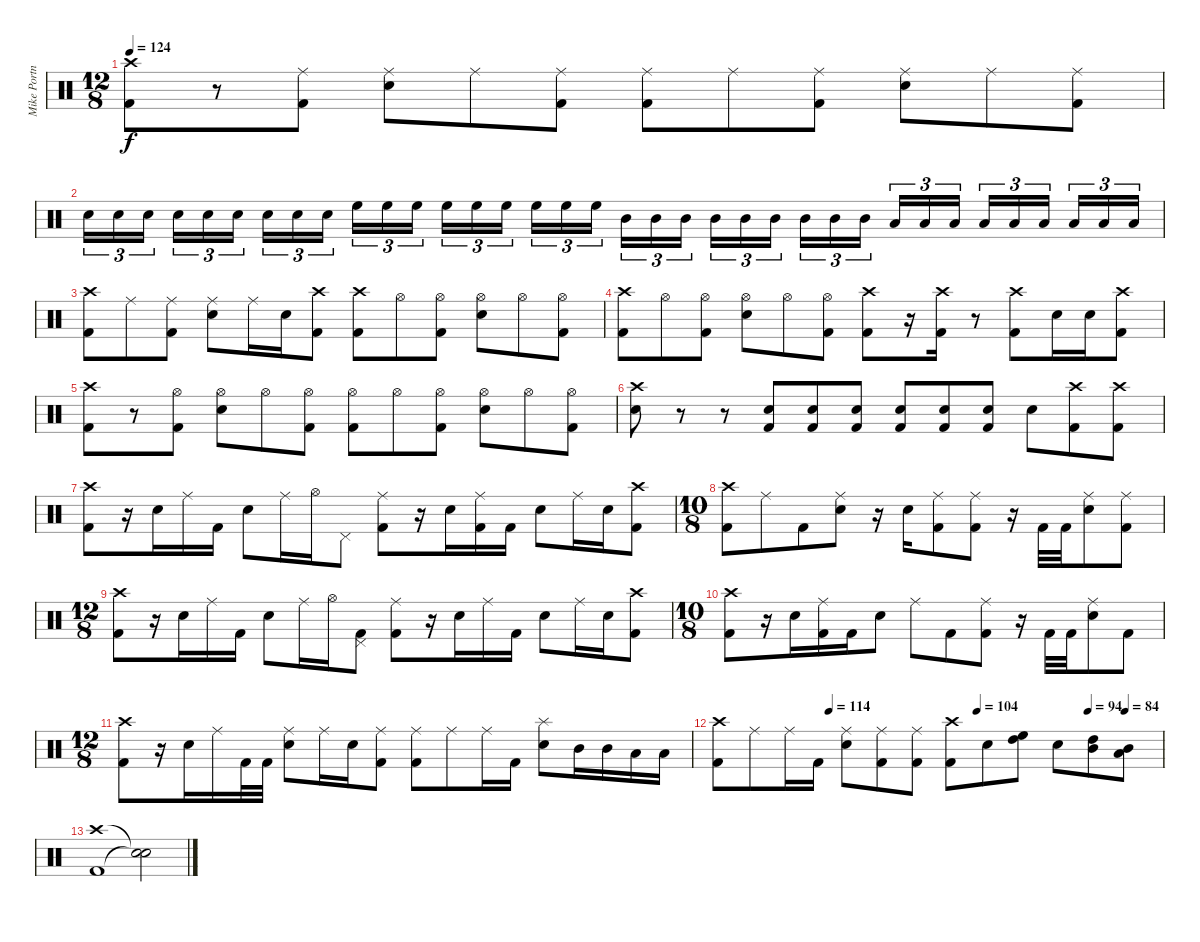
\track ("Mike Portnoy - Drums" "Mike Portn") {instrument percussion}
\staff {score}
\articulation defaults
\ts (12 8)
\tempo 124
\clef neutral
\ks c
("Crash high (hit)" "Kick (hit) 2").8{dy f} r.8 ("Ride (middle)" "Kick (hit) 2").8 ("Ride (middle)" "Electric Snare (hit)").8 "Ride (middle)".8 ("Ride (middle)" "Kick (hit) 2").8 ("Ride (middle)" "Kick (hit) 2").8 "Ride (middle)".8 ("Ride (middle)" "Kick (hit) 2").8 ("Ride (middle)" "Electric Snare (hit)").8 "Ride (middle)".8 ("Ride (middle)" "Kick (hit) 2").8 |
"Electric Snare (hit)".16{tu (3 2)} "Electric Snare (hit)".16{tu (3 2)} "Electric Snare (hit)".16{tu (3 2)} "Electric Snare (hit)".16{tu (3 2)} "Electric Snare (hit)".16{tu (3 2)} "Electric Snare (hit)".16{tu (3 2)} "Electric Snare (hit)".16{tu (3 2)} "Electric Snare (hit)".16{tu (3 2)} "Electric Snare (hit)".16{tu (3 2)} "High Floor Tom (hit)".16{tu (3 2)} "High Floor Tom (hit)".16{tu (3 2)} "High Floor Tom (hit)".16{tu (3 2)} "High Floor Tom (hit)".16{tu (3 2)} "High Floor Tom (hit)".16{tu (3 2)} "High Floor Tom (hit)".16{tu (3 2)} "High Floor Tom (hit)".16{tu (3 2)} "High Floor Tom (hit)".16{tu (3 2)} "High Floor Tom (hit)".16{tu (3 2)} "Mid Tom (hit)".16{tu (3 2)} "Mid Tom (hit)".16{tu (3 2)} "Mid Tom (hit)".16{tu (3 2)} "Mid Tom (hit)".16{tu (3 2)} "Mid Tom (hit)".16{tu (3 2)} "Mid Tom (hit)".16{tu (3 2)} "Mid Tom (hit)".16{tu (3 2)} "Mid Tom (hit)".16{tu (3 2)} "Mid Tom (hit)".16{tu (3 2)} "Low Floor Tom (hit)".16{tu (3 2)} "Low Floor Tom (hit)".16{tu (3 2)} "Low Floor Tom (hit)".16{tu (3 2)} "Low Floor Tom (hit)".16{tu (3 2)} "Low Floor Tom (hit)".16{tu (3 2)} "Low Floor Tom (hit)".16{tu (3 2)} "Low Floor Tom (hit)".16{tu (3 2)} "Low Floor Tom (hit)".16{tu (3 2)} "Low Floor Tom (hit)".16{tu (3 2)} |
("Crash high (hit)" "Kick (hit) 2").8 "Ride (middle)".8 ("Ride (middle)" "Kick (hit) 2").8 ("Ride (middle)" "Electric Snare (hit)").8 "Ride (middle)".16 "Electric Snare (hit)".16 ("Crash high (hit)" "Kick (hit) 2").8 ("Crash high (hit)" "Kick (hit) 2").8 "Hi-Hat (open)".8 ("Hi-Hat (open)" "Kick (hit) 2").8 ("Hi-Hat (open)" "Electric Snare (hit)").8 "Hi-Hat (open)".8 ("Hi-Hat (open)" "Kick (hit) 2").8 |
("Crash high (hit)" "Kick (hit) 2").8 "Hi-Hat (open)".8 ("Hi-Hat (open)" "Kick (hit) 2").8 ("Hi-Hat (open)" "Electric Snare (hit)").8 "Hi-Hat (open)".8 ("Hi-Hat (open)" "Kick (hit) 2").8 ("Crash high (hit)" "Kick (hit) 2").8 r.16 ("Crash high (hit)" "Kick (hit) 2").16 r.8 ("Crash high (hit)" "Kick (hit) 2").8 "Electric Snare (hit)".16 "Electric Snare (hit)".16 ("Crash high (hit)" "Kick (hit) 2").8 |
("Crash high (hit)" "Kick (hit) 2").8 r.8 ("Hi-Hat (open)" "Kick (hit) 2").8 ("Hi-Hat (open)" "Electric Snare (hit)").8 "Hi-Hat (open)".8 ("Hi-Hat (open)" "Kick (hit) 2").8 ("Hi-Hat (open)" "Kick (hit) 2").8 "Hi-Hat (open)".8 ("Hi-Hat (open)" "Kick (hit) 2").8 ("Hi-Hat (open)" "Electric Snare (hit)").8 "Hi-Hat (open)".8 ("Hi-Hat (open)" "Kick (hit) 2").8 |
("Crash high (hit)" "Electric Snare (hit)").8 r.8 r.8 ("Electric Snare (hit)" "Kick (hit) 2").8 ("Electric Snare (hit)" "Kick (hit) 2").8 ("Electric Snare (hit)" "Kick (hit) 2").8 ("Electric Snare (hit)" "Kick (hit) 2").8 ("Electric Snare (hit)" "Kick (hit) 2").8 ("Electric Snare (hit)" "Kick (hit) 2").8 "Electric Snare (hit)".8 ("Crash high (hit)" "Kick (hit) 2").8 ("Crash high (hit)" "Kick (hit) 2").8 |
("Crash high (hit)" "Kick (hit) 2").8 r.16 "Electric Snare (hit)".16 "Ride (middle)".16 "Kick (hit) 2".16 "Electric Snare (hit)".8 "Ride (middle)".16 "Hi-Hat (open)".16 "Pedal Hi-Hat (hit)".8 ("Ride (middle)" "Kick (hit) 2").8 r.16 "Electric Snare (hit)".16 ("Ride (middle)" "Kick (hit) 2").16 "Kick (hit) 2".16 "Electric Snare (hit)".8 "Ride (middle)".16 "Electric Snare (hit)".16 ("Crash high (hit)" "Kick (hit) 2").8 |
\ts (10 8)
("Crash high (hit)" "Kick (hit) 2").8 "Ride (middle)".8 "Kick (hit) 2".8 ("Ride (middle)" "Electric Snare (hit)").8 r.16 "Electric Snare (hit)".16 ("Ride (middle)" "Kick (hit) 2").8 ("Ride (middle)" "Kick (hit) 2").8 r.16 "Kick (hit) 2".32 "Kick (hit) 2".32 ("Ride (middle)" "Electric Snare (hit)").8 ("Ride (middle)" "Kick (hit) 2").8 |
\ts (12 8)
("Crash high (hit)" "Kick (hit) 2").8 r.16 "Electric Snare (hit)".16 "Ride (middle)".16 "Kick (hit) 2".16 "Electric Snare (hit)".8 "Ride (middle)".16 "Hi-Hat (open)".16 ("Pedal Hi-Hat (hit)" "Kick (hit) 2").8 ("Ride (middle)" "Kick (hit) 2").8 r.16 "Electric Snare (hit)".16 "Ride (middle)".16 "Kick (hit) 2".16 "Electric Snare (hit)".8 "Ride (middle)".16 "Electric Snare (hit)".16 ("Crash high (hit)" "Kick (hit) 2").8 |
\ts (10 8)
("Crash high (hit)" "Kick (hit) 2").8 r.16 "Electric Snare (hit)".16 ("Ride (middle)" "Kick (hit) 2").16 "Kick (hit) 2".16 "Electric Snare (hit)".8 "Ride (middle)".8 "Kick (hit) 2".8 ("Ride (middle)" "Kick (hit) 2").8 r.16 "Kick (hit) 2".32 "Kick (hit) 2".32 ("Ride (middle)" "Electric Snare (hit)").8 "Kick (hit) 2".8 |
\ts (12 8)
("Crash high (hit)" "Kick (hit) 2").8 r.16 "Electric Snare (hit)".16 "Ride (middle)".16 "Kick (hit) 2".32 "Kick (hit) 2".32 ("Ride (middle)" "Electric Snare (hit)").8 "Ride (middle)".16 "Electric Snare (hit)".16 ("Ride (middle)" "Kick (hit) 2").8 ("Ride (middle)" "Kick (hit) 2").8 "Ride (middle)".8 "Ride (middle)".16 "Kick (hit) 2".16 ("Splash (hit)" "Electric Snare (hit)").8 "Mid Tom (hit)".16 "Mid Tom (hit)".16 "Low Tom (hit)".16 "Low Floor Tom (hit)".16 |
\tempo (114 0.25)
\tempo (104 0.5833333333333334)
\tempo (94 0.8333333333333334)
\tempo (84 0.9166666666666666)
("Crash high (hit)" "Kick (hit) 2").8 "Ride (middle)".8 "Ride (middle)".16 "Kick (hit) 2".16 ("Ride (middle)" "Electric Snare (hit)").8 ("Ride (middle)" "Kick (hit) 2").8 ("Ride (middle)" "Kick (hit) 2").8 ("Crash high (hit)" "Kick (hit) 2").8 "Electric Snare (hit)".8 ("High Floor Tom (hit)" "High Tom (hit)").8 "Electric Snare (hit)".8 ("High Tom (hit)" "Mid Tom (hit)").8 ("Mid Tom (hit)" "Low Tom (hit)").8 |
("Crash high (hit)" "Kick (hit) 2").1 ("Snare (hit)"{t} "Snare (hit)"{t}).2
